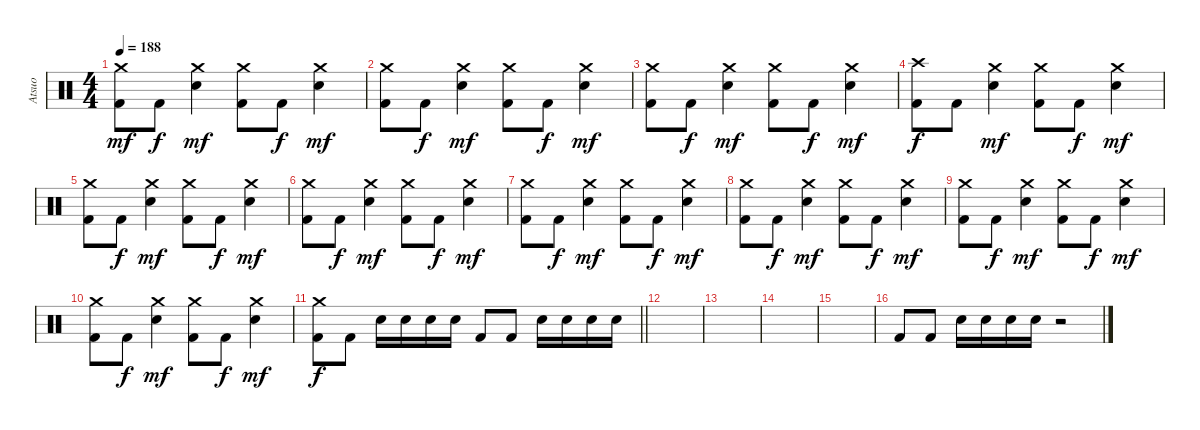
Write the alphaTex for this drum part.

\track ("Atsuo" "Atsuo") {instrument percussion}
\staff {score}
\articulation defaults
\ts (4 4)
\tempo 188
\clef neutral
\ks c
("Crash medium (hit)" "Kick (hit) 2").8{dy mf} "Kick (hit) 2".8{dy f} ("Crash medium (hit)" "Electric Snare (hit)").4{dy mf} ("Crash medium (hit)" "Kick (hit) 2").8 "Kick (hit) 2".8{dy f} ("Crash medium (hit)" "Electric Snare (hit)").4{dy mf} |
("Crash medium (hit)" "Kick (hit) 2").8 "Kick (hit) 2".8{dy f} ("Crash medium (hit)" "Electric Snare (hit)").4{dy mf} ("Crash medium (hit)" "Kick (hit) 2").8 "Kick (hit) 2".8{dy f} ("Crash medium (hit)" "Electric Snare (hit)").4{dy mf} |
("Crash medium (hit)" "Kick (hit) 2").8 "Kick (hit) 2".8{dy f} ("Crash medium (hit)" "Electric Snare (hit)").4{dy mf} ("Crash medium (hit)" "Kick (hit) 2").8 "Kick (hit) 2".8{dy f} ("Crash medium (hit)" "Electric Snare (hit)").4{dy mf} |
("Crash high (hit)" "Kick (hit) 2").8{dy f} "Kick (hit) 2".8 ("Crash medium (hit)" "Electric Snare (hit)").4{dy mf} ("Crash medium (hit)" "Kick (hit) 2").8 "Kick (hit) 2".8{dy f} ("Crash medium (hit)" "Electric Snare (hit)").4{dy mf} |
("Crash medium (hit)" "Kick (hit) 2").8 "Kick (hit) 2".8{dy f} ("Crash medium (hit)" "Electric Snare (hit)").4{dy mf} ("Crash medium (hit)" "Kick (hit) 2").8 "Kick (hit) 2".8{dy f} ("Crash medium (hit)" "Electric Snare (hit)").4{dy mf} |
("Crash medium (hit)" "Kick (hit) 2").8 "Kick (hit) 2".8{dy f} ("Crash medium (hit)" "Electric Snare (hit)").4{dy mf} ("Crash medium (hit)" "Kick (hit) 2").8 "Kick (hit) 2".8{dy f} ("Crash medium (hit)" "Electric Snare (hit)").4{dy mf} |
("Crash medium (hit)" "Kick (hit) 2").8 "Kick (hit) 2".8{dy f} ("Crash medium (hit)" "Electric Snare (hit)").4{dy mf} ("Crash medium (hit)" "Kick (hit) 2").8 "Kick (hit) 2".8{dy f} ("Crash medium (hit)" "Electric Snare (hit)").4{dy mf} |
("Crash medium (hit)" "Kick (hit) 2").8 "Kick (hit) 2".8{dy f} ("Crash medium (hit)" "Electric Snare (hit)").4{dy mf} ("Crash medium (hit)" "Kick (hit) 2").8 "Kick (hit) 2".8{dy f} ("Crash medium (hit)" "Electric Snare (hit)").4{dy mf} |
("Crash medium (hit)" "Kick (hit) 2").8 "Kick (hit) 2".8{dy f} ("Crash medium (hit)" "Electric Snare (hit)").4{dy mf} ("Crash medium (hit)" "Kick (hit) 2").8 "Kick (hit) 2".8{dy f} ("Crash medium (hit)" "Electric Snare (hit)").4{dy mf} |
("Crash medium (hit)" "Kick (hit) 2").8 "Kick (hit) 2".8{dy f} ("Crash medium (hit)" "Electric Snare (hit)").4{dy mf} ("Crash medium (hit)" "Kick (hit) 2").8 "Kick (hit) 2".8{dy f} ("Crash medium (hit)" "Electric Snare (hit)").4{dy mf} |
\barLineRight lightlight
("Crash medium (hit)" "Kick (hit) 2").8{dy f} "Kick (hit) 2".8 "Electric Snare (hit)".16 "Electric Snare (hit)".16 "Electric Snare (hit)".16 "Electric Snare (hit)".16 "Kick (hit) 2".8 "Kick (hit) 2".8 "Electric Snare (hit)".16 "Electric Snare (hit)".16 "Electric Snare (hit)".16 "Electric Snare (hit)".16 |
\section ("" "")
|
|
|
|
"Kick (hit) 2".8 "Kick (hit) 2".8 "Electric Snare (hit)".16 "Electric Snare (hit)".16 "Electric Snare (hit)".16 "Electric Snare (hit)".16 r.2
